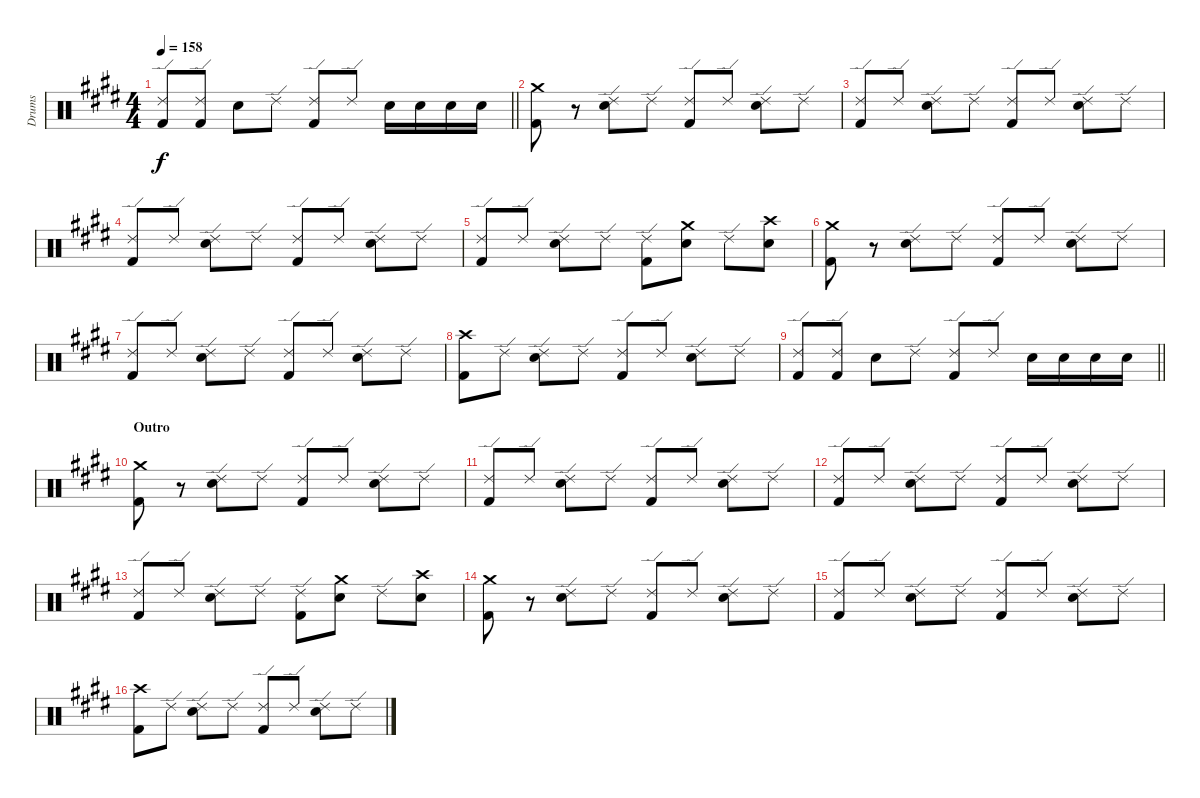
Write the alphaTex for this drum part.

\track ("Drums" "Drums") {instrument percussion}
\staff {score}
\articulation defaults
\ts (4 4)
\tempo 158
\clef neutral
\barLineRight lightlight
\ks c#minor
("Ride (edge) 2" "Kick (hit) 2").8{dy f} ("Ride (edge) 2" "Kick (hit) 2").8 "Snare (hit) 2".8 "Ride (edge) 2".8 ("Ride (edge) 2" "Kick (hit) 2").8 "Ride (edge) 2".8 "Snare (hit) 2".16 "Snare (hit) 2".16 "Snare (hit) 2".16 "Snare (hit) 2".16 |
\ks e
("Crash medium (hit)" "Kick (hit) 2").8 r.8 ("Ride (edge) 2" "Snare (hit) 2").8 "Ride (edge) 2".8 ("Ride (edge) 2" "Kick (hit) 2").8 "Ride (edge) 2".8 ("Ride (edge) 2" "Snare (hit) 2").8 "Ride (edge) 2".8 |
\ks c#minor
("Ride (edge) 2" "Kick (hit) 2").8 "Ride (edge) 2".8 ("Ride (edge) 2" "Snare (hit) 2").8 "Ride (edge) 2".8 ("Ride (edge) 2" "Kick (hit) 2").8 "Ride (edge) 2".8 ("Ride (edge) 2" "Snare (hit) 2").8 "Ride (edge) 2".8 |
("Ride (edge) 2" "Kick (hit) 2").8 "Ride (edge) 2".8 ("Ride (edge) 2" "Snare (hit) 2").8 "Ride (edge) 2".8 ("Ride (edge) 2" "Kick (hit) 2").8 "Ride (edge) 2".8 ("Ride (edge) 2" "Snare (hit) 2").8 "Ride (edge) 2".8 |
("Ride (edge) 2" "Kick (hit) 2").8 "Ride (edge) 2".8 ("Ride (edge) 2" "Snare (hit) 2").8 "Ride (edge) 2".8 ("Ride (edge) 2" "Kick (hit) 2").8 ("Crash medium (hit)" "Snare (hit) 2").8 "Ride (edge) 2".8 ("Crash high (hit)" "Snare (hit) 2").8 |
\ks e
("Crash medium (hit)" "Kick (hit) 2").8 r.8 ("Ride (edge) 2" "Snare (hit) 2").8 "Ride (edge) 2".8 ("Ride (edge) 2" "Kick (hit) 2").8 "Ride (edge) 2".8 ("Ride (edge) 2" "Snare (hit) 2").8 "Ride (edge) 2".8 |
\ks c#minor
("Ride (edge) 2" "Kick (hit) 2").8 "Ride (edge) 2".8 ("Ride (edge) 2" "Snare (hit) 2").8 "Ride (edge) 2".8 ("Ride (edge) 2" "Kick (hit) 2").8 "Ride (edge) 2".8 ("Ride (edge) 2" "Snare (hit) 2").8 "Ride (edge) 2".8 |
("Crash high (hit)" "Kick (hit) 2").8 "Ride (edge) 2".8 ("Ride (edge) 2" "Snare (hit) 2").8 "Ride (edge) 2".8 ("Ride (edge) 2" "Kick (hit) 2").8 "Ride (edge) 2".8 ("Ride (edge) 2" "Snare (hit) 2").8 "Ride (edge) 2".8 |
\barLineRight lightlight
("Ride (edge) 2" "Kick (hit) 2").8 ("Ride (edge) 2" "Kick (hit) 2").8 "Snare (hit) 2".8 "Ride (edge) 2".8 ("Ride (edge) 2" "Kick (hit) 2").8 "Ride (edge) 2".8 "Snare (hit) 2".16 "Snare (hit) 2".16 "Snare (hit) 2".16 "Snare (hit) 2".16 |
\section ("" "Outro")
\ks e
("Crash medium (hit)" "Kick (hit) 2").8 r.8 ("Ride (edge) 2" "Snare (hit) 2").8 "Ride (edge) 2".8 ("Ride (edge) 2" "Kick (hit) 2").8 "Ride (edge) 2".8 ("Ride (edge) 2" "Snare (hit) 2").8 "Ride (edge) 2".8 |
\ks c#minor
("Ride (edge) 2" "Kick (hit) 2").8 "Ride (edge) 2".8 ("Ride (edge) 2" "Snare (hit) 2").8 "Ride (edge) 2".8 ("Ride (edge) 2" "Kick (hit) 2").8 "Ride (edge) 2".8 ("Ride (edge) 2" "Snare (hit) 2").8 "Ride (edge) 2".8 |
("Ride (edge) 2" "Kick (hit) 2").8 "Ride (edge) 2".8 ("Ride (edge) 2" "Snare (hit) 2").8 "Ride (edge) 2".8 ("Ride (edge) 2" "Kick (hit) 2").8 "Ride (edge) 2".8 ("Ride (edge) 2" "Snare (hit) 2").8 "Ride (edge) 2".8 |
("Ride (edge) 2" "Kick (hit) 2").8 "Ride (edge) 2".8 ("Ride (edge) 2" "Snare (hit) 2").8 "Ride (edge) 2".8 ("Ride (edge) 2" "Kick (hit) 2").8 ("Crash medium (hit)" "Snare (hit) 2").8 "Ride (edge) 2".8 ("Crash high (hit)" "Snare (hit) 2").8 |
\ks e
("Crash medium (hit)" "Kick (hit) 2").8 r.8 ("Ride (edge) 2" "Snare (hit) 2").8 "Ride (edge) 2".8 ("Ride (edge) 2" "Kick (hit) 2").8 "Ride (edge) 2".8 ("Ride (edge) 2" "Snare (hit) 2").8 "Ride (edge) 2".8 |
\ks c#minor
("Ride (edge) 2" "Kick (hit) 2").8 "Ride (edge) 2".8 ("Ride (edge) 2" "Snare (hit) 2").8 "Ride (edge) 2".8 ("Ride (edge) 2" "Kick (hit) 2").8 "Ride (edge) 2".8 ("Ride (edge) 2" "Snare (hit) 2").8 "Ride (edge) 2".8 |
("Crash high (hit)" "Kick (hit) 2").8 "Ride (edge) 2".8 ("Ride (edge) 2" "Snare (hit) 2").8 "Ride (edge) 2".8 ("Ride (edge) 2" "Kick (hit) 2").8 "Ride (edge) 2".8 ("Ride (edge) 2" "Snare (hit) 2").8 "Ride (edge) 2".8
